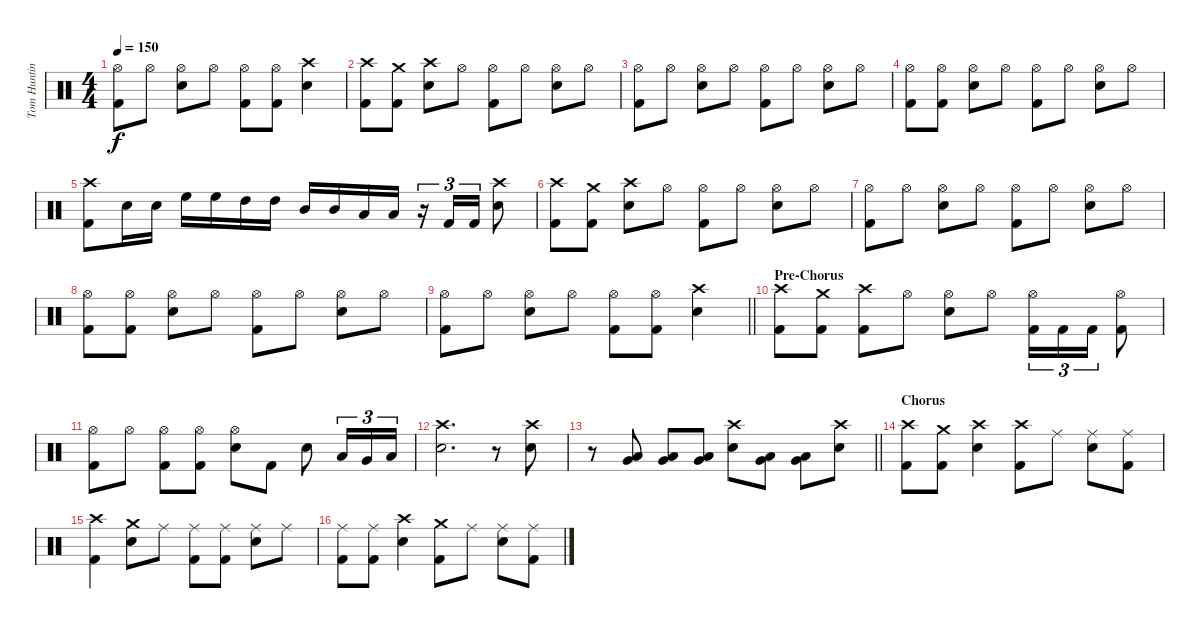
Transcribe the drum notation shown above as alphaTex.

\track ("Tom Hunting" "Tom Huntin") {instrument percussion}
\staff {score}
\articulation defaults
\ts (4 4)
\tempo 150
\clef neutral
\ks c
("Hi-Hat (open)" "Kick (hit) 2").8{dy f} "Hi-Hat (open)".8 ("Hi-Hat (open)" "Snare (hit) 2").8 "Hi-Hat (open)".8 ("Hi-Hat (open)" "Kick (hit) 2").8 ("Hi-Hat (open)" "Kick (hit) 2").8 ("Crash high (hit)" "Snare (hit) 2").4 |
("Crash high (hit)" "Kick (hit) 2").8 ("Crash medium (hit)" "Kick (hit) 2").8 ("Crash high (hit)" "Snare (hit) 2").8 "Hi-Hat (open)".8 ("Hi-Hat (open)" "Kick (hit) 2").8 "Hi-Hat (open)".8 ("Hi-Hat (open)" "Snare (hit) 2").8 "Hi-Hat (open)".8 |
("Hi-Hat (open)" "Kick (hit) 2").8 "Hi-Hat (open)".8 ("Hi-Hat (open)" "Snare (hit) 2").8 "Hi-Hat (open)".8 ("Hi-Hat (open)" "Kick (hit) 2").8 "Hi-Hat (open)".8 ("Hi-Hat (open)" "Snare (hit) 2").8 "Hi-Hat (open)".8 |
("Hi-Hat (open)" "Kick (hit) 2").8 ("Hi-Hat (open)" "Kick (hit) 2").8 ("Hi-Hat (open)" "Snare (hit) 2").8 "Hi-Hat (open)".8 ("Hi-Hat (open)" "Kick (hit) 2").8 "Hi-Hat (open)".8 ("Hi-Hat (open)" "Snare (hit) 2").8 "Hi-Hat (open)".8 |
("Crash high (hit)" "Kick (hit) 2").8 "Snare (hit) 2".16 "Snare (hit) 2".16 "High Floor Tom (hit)".16 "High Floor Tom (hit)".16 "High Tom (hit)".16 "High Tom (hit)".16 "Mid Tom (hit)".16 "Mid Tom (hit)".16 "Low Tom (hit)".16 "Low Tom (hit)".16 r.16{tu (3 2)} "Kick (hit) 2".16{tu (3 2)} "Kick (hit) 2".16{tu (3 2)} ("Crash high (hit)" "Snare (hit) 2").8 |
("Crash high (hit)" "Kick (hit) 2").8 ("Crash medium (hit)" "Kick (hit) 2").8 ("Crash high (hit)" "Snare (hit) 2").8 "Hi-Hat (open)".8 ("Hi-Hat (open)" "Kick (hit) 2").8 "Hi-Hat (open)".8 ("Hi-Hat (open)" "Snare (hit) 2").8 "Hi-Hat (open)".8 |
("Hi-Hat (open)" "Kick (hit) 2").8 "Hi-Hat (open)".8 ("Hi-Hat (open)" "Snare (hit) 2").8 "Hi-Hat (open)".8 ("Hi-Hat (open)" "Kick (hit) 2").8 "Hi-Hat (open)".8 ("Hi-Hat (open)" "Snare (hit) 2").8 "Hi-Hat (open)".8 |
("Hi-Hat (open)" "Kick (hit) 2").8 ("Hi-Hat (open)" "Kick (hit) 2").8 ("Hi-Hat (open)" "Snare (hit) 2").8 "Hi-Hat (open)".8 ("Hi-Hat (open)" "Kick (hit) 2").8 "Hi-Hat (open)".8 ("Hi-Hat (open)" "Snare (hit) 2").8 "Hi-Hat (open)".8 |
\barLineRight lightlight
("Hi-Hat (open)" "Kick (hit) 2").8 "Hi-Hat (open)".8 ("Hi-Hat (open)" "Snare (hit) 2").8 "Hi-Hat (open)".8 ("Hi-Hat (open)" "Kick (hit) 2").8 ("Hi-Hat (open)" "Kick (hit) 2").8 ("Crash high (hit)" "Snare (hit) 2").4 |
\section ("" "Pre-Chorus")
("Crash high (hit)" "Kick (hit) 2").8 ("Crash medium (hit)" "Kick (hit) 2").8 ("Crash high (hit)" "Kick (hit) 2").8 "Hi-Hat (open)".8 ("Hi-Hat (open)" "Snare (hit) 2").8 "Hi-Hat (open)".8 ("Hi-Hat (open)" "Kick (hit) 2").16{tu (3 2)} "Kick (hit) 2".16{tu (3 2)} "Kick (hit) 2".16{tu (3 2)} ("Hi-Hat (open)" "Kick (hit) 2").8 |
("Hi-Hat (open)" "Kick (hit) 2").8 "Hi-Hat (open)".8 ("Hi-Hat (open)" "Kick (hit) 2").8 ("Hi-Hat (open)" "Kick (hit) 2").8 ("Hi-Hat (open)" "Snare (hit) 2").8 "Kick (hit) 2".8 "Snare (hit) 2".8 "Low Tom (hit)".16{tu (3 2)} "Very Low Tom (hit)".16{tu (3 2)} "Low Floor Tom (hit)".16{tu (3 2)} |
("Crash high (hit)" "Snare (hit) 2").2{d} r.8 ("Crash high (hit)" "Snare (hit) 2").8 |
\barLineRight lightlight
r.8 ("Low Tom (hit)" "Very Low Tom (hit)").8 ("Low Tom (hit)" "Very Low Tom (hit)").8 ("Low Tom (hit)" "Very Low Tom (hit)").8 ("Crash high (hit)" "Snare (hit) 2").8 ("Low Tom (hit)" "Very Low Tom (hit)").8 ("Low Tom (hit)" "Very Low Tom (hit)").8 ("Crash high (hit)" "Snare (hit) 2").8 |
\section ("" "Chorus")
("Crash high (hit)" "Kick (hit) 2").8 ("Crash medium (hit)" "Kick (hit) 2").8 ("Crash high (hit)" "Snare (hit) 2").4 ("Crash high (hit)" "Kick (hit) 2").8 "Ride (middle)".8 ("Ride (middle)" "Snare (hit) 2").8 ("Ride (middle)" "Kick (hit) 2").8 |
("Crash high (hit)" "Kick (hit) 2").4 ("Crash medium (hit)" "Snare (hit) 2").8 "Ride (middle)".8 ("Ride (middle)" "Kick (hit) 2").8 ("Ride (middle)" "Kick (hit) 2").8 ("Ride (middle)" "Snare (hit) 2").8 "Ride (middle)".8 |
("Ride (middle)" "Kick (hit) 2").8 ("Ride (middle)" "Kick (hit) 2").8 ("Crash high (hit)" "Snare (hit) 2").4 ("Crash medium (hit)" "Kick (hit) 2").8 "Ride (middle)".8 ("Ride (middle)" "Snare (hit) 2").8 ("Ride (middle)" "Kick (hit) 2").8
